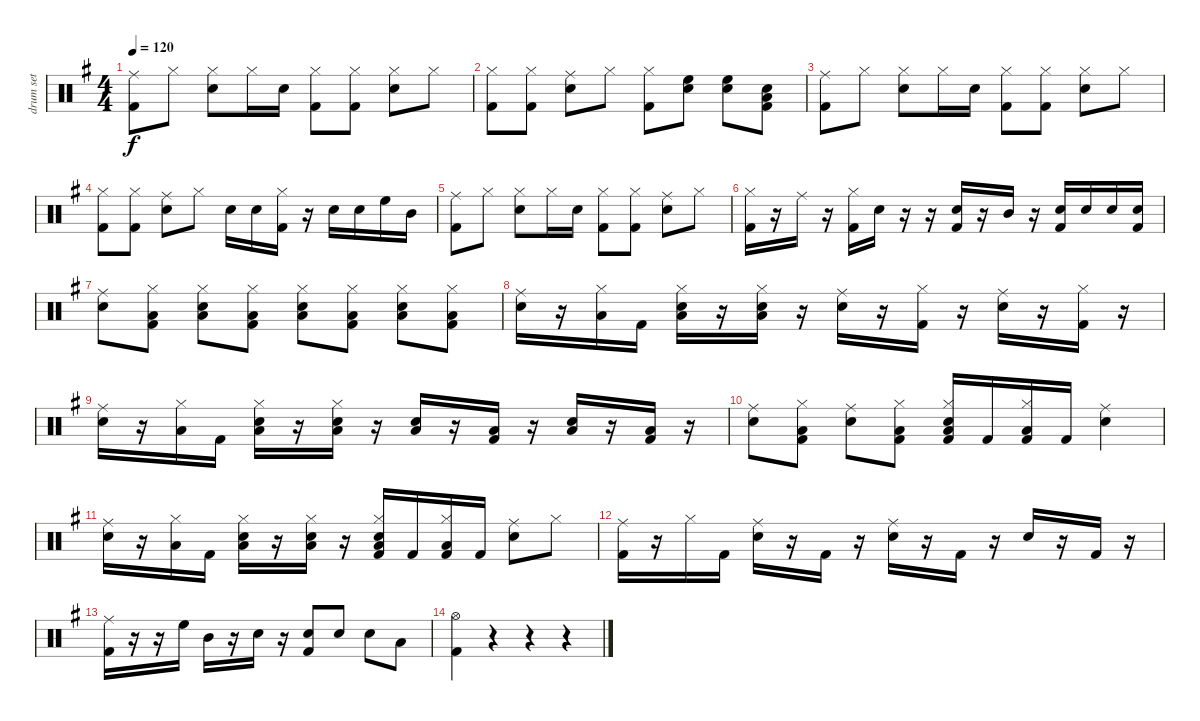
\track ("drum set" "drum set") {instrument percussion}
\staff {score}
\articulation defaults
\ts (4 4)
\tempo 120
\clef neutral
\ks g
("Ride (middle)" "Kick (hit) 2").8{dy f} "Hi-Hat (closed)".8 ("Hi-Hat (closed)" "Snare (hit) 2").8 "Hi-Hat (closed)".16 "Snare (hit) 2".16 ("Hi-Hat (closed)" "Kick (hit) 2").8 ("Hi-Hat (closed)" "Kick (hit) 2").8 ("Hi-Hat (closed)" "Snare (hit) 2").8 "Hi-Hat (closed)".8 |
("Hi-Hat (closed)" "Kick (hit) 2").8 ("Hi-Hat (closed)" "Kick (hit) 2").8 ("Ride (middle)" "Snare (hit) 2").8 "Hi-Hat (closed)".8 ("Hi-Hat (closed)" "Kick (hit) 2").8 ("High Floor Tom (hit)" "Snare (hit) 2").8 ("High Floor Tom (hit)" "Snare (hit) 2").8 ("Snare (hit) 2" "Low Tom (hit)" "Kick (hit) 2").8 |
("Ride (middle)" "Kick (hit) 2").8 "Hi-Hat (closed)".8 ("Hi-Hat (closed)" "Snare (hit) 2").8 "Hi-Hat (closed)".16 "Snare (hit) 2".16 ("Hi-Hat (closed)" "Kick (hit) 2").8 ("Hi-Hat (closed)" "Kick (hit) 2").8 ("Hi-Hat (closed)" "Snare (hit) 2").8 "Hi-Hat (closed)".8 |
("Hi-Hat (closed)" "Kick (hit) 2").8 ("Hi-Hat (closed)" "Kick (hit) 2").8 ("Ride (middle)" "Snare (hit) 2").8 "Hi-Hat (closed)".8 "Snare (hit) 2".16 "Snare (hit) 2".16 ("Hi-Hat (closed)" "Kick (hit) 2").16 r.16 "Snare (hit) 2".16 "Snare (hit) 2".16 "High Floor Tom (hit)".16 "Mid Tom (hit)".16 |
("Ride (middle)" "Kick (hit) 2").8 "Hi-Hat (closed)".8 ("Hi-Hat (closed)" "Snare (hit) 2").8 "Hi-Hat (closed)".16 "Snare (hit) 2".16 ("Hi-Hat (closed)" "Kick (hit) 2").8 ("Hi-Hat (closed)" "Kick (hit) 2").8 ("Ride (middle)" "Snare (hit) 2").8 "Hi-Hat (closed)".8 |
("Hi-Hat (closed)" "Kick (hit) 2").16 r.16 "Ride (middle)".16 r.16 ("Hi-Hat (closed)" "Kick (hit) 2").16 "Snare (hit) 2".16 r.16 r.16 ("Snare (hit) 2" "Kick (hit) 2").16 r.16 "Mid Tom (hit)".16 r.16 ("Snare (hit) 2" "Kick (hit) 2").16 "Snare (hit) 2".16 "Snare (hit) 2".16 ("Snare (hit) 2" "Kick (hit) 2").16 |
("Ride (middle)" "Snare (hit) 2").8 ("Hi-Hat (closed)" "Kick (hit) 2" "Low Tom (hit)").8 ("Hi-Hat (closed)" "Snare (hit) 2" "Low Tom (hit)").8 ("Hi-Hat (closed)" "Kick (hit) 2" "Low Tom (hit)").8 ("Hi-Hat (closed)" "Snare (hit) 2" "Low Tom (hit)").8 ("Hi-Hat (closed)" "Kick (hit) 2" "Low Tom (hit)").8 ("Hi-Hat (closed)" "Snare (hit) 2" "Low Tom (hit)").8 ("Hi-Hat (closed)" "Kick (hit) 2" "Low Tom (hit)").8 |
("Ride (middle)" "Snare (hit) 2").16 r.16 ("Hi-Hat (closed)" "Low Tom (hit)").16 "Kick (hit) 2".16 ("Hi-Hat (closed)" "Snare (hit) 2" "Low Tom (hit)").16 r.16 ("Hi-Hat (closed)" "Low Tom (hit)" "Snare (hit) 2").16 r.16 ("Ride (middle)" "Snare (hit) 2").16 r.16 ("Hi-Hat (closed)" "Kick (hit) 2").16 r.16 ("Ride (middle)" "Snare (hit) 2").16 r.16 ("Hi-Hat (closed)" "Kick (hit) 2").16 r.16 |
("Ride (middle)" "Snare (hit) 2").16 r.16 ("Hi-Hat (closed)" "Low Tom (hit)").16 "Kick (hit) 2".16 ("Hi-Hat (closed)" "Snare (hit) 2" "Low Tom (hit)").16 r.16 ("Hi-Hat (closed)" "Low Tom (hit)" "Snare (hit) 2").16 r.16 ("Low Tom (hit)" "Snare (hit) 2").16 r.16 ("Low Tom (hit)" "Kick (hit) 2").16 r.16 ("Low Tom (hit)" "Snare (hit) 2").16 r.16 ("Low Tom (hit)" "Kick (hit) 2").16 r.16 |
("Ride (middle)" "Snare (hit) 2").8 ("Hi-Hat (closed)" "Low Tom (hit)" "Kick (hit) 2").8 ("Ride (middle)" "Snare (hit) 2").8 ("Hi-Hat (closed)" "Low Tom (hit)" "Kick (hit) 2").8 ("Hi-Hat (closed)" "Kick (hit) 2" "Snare (hit) 2" "Low Tom (hit)").16 "Kick (hit) 2".16 ("Hi-Hat (closed)" "Kick (hit) 2" "Low Tom (hit)").16 "Kick (hit) 2".16 ("Ride (middle)" "Snare (hit) 2").4 |
("Ride (middle)" "Snare (hit) 2").16 r.16 ("Hi-Hat (closed)" "Low Tom (hit)").16 "Kick (hit) 2".16 ("Hi-Hat (closed)" "Snare (hit) 2" "Low Tom (hit)").16 r.16 ("Hi-Hat (closed)" "Low Tom (hit)" "Snare (hit) 2").16 r.16 ("Hi-Hat (closed)" "Kick (hit) 2" "Low Tom (hit)" "Snare (hit) 2").16 "Kick (hit) 2".16 ("Hi-Hat (closed)" "Kick (hit) 2" "Low Tom (hit)").16 "Kick (hit) 2".16 ("Ride (middle)" "Snare (hit) 2").8 "Hi-Hat (closed)".8 |
("Ride (middle)" "Kick (hit) 2").16 r.16 "Hi-Hat (closed)".16 "Kick (hit) 2".16 ("Ride (middle)" "Snare (hit) 2").16 r.16 "Kick (hit) 2".16 r.16 ("Ride (middle)" "Snare (hit) 2").16 r.16 "Kick (hit) 2".16 r.16 "Snare (hit) 2".16 r.16 "Kick (hit) 2".16 r.16 |
("Ride (middle)" "Kick (hit) 2").16 r.16 r.16 "High Floor Tom (hit)".16 "Mid Tom (hit)".16 r.16 "Snare (hit) 2".16 r.16 ("Snare (hit) 2" "Kick (hit) 2").8 "Snare (hit) 2".8 "Snare (hit) 2".8 "Low Tom (hit)".8 |
("Hi-Hat (open)" "Kick (hit) 2").4 r.4 r.4 r.4
